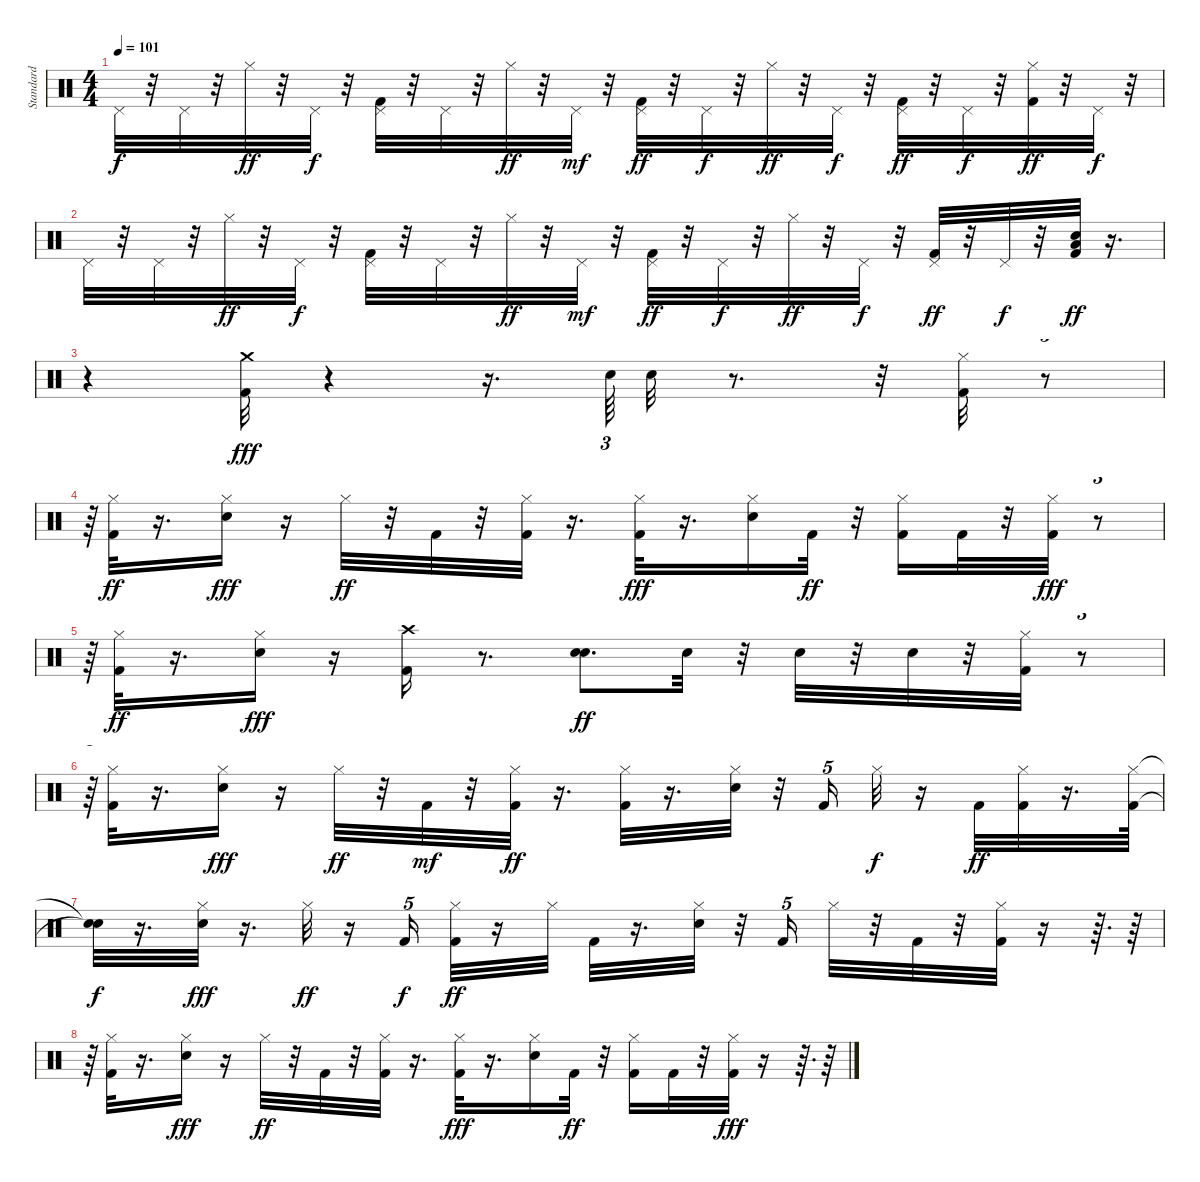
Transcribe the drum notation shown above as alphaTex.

\track (" Standard" " Standard") {instrument percussion}
\staff {score}
\articulation defaults
\ts (4 4)
\tempo 101
\clef neutral
\ks c "Pedal Hi-Hat (hit)".32{dy f}
r.32 "Pedal Hi-Hat (hit)".32 r.32 "Hi-Hat (closed)".32{dy ff} r.32 "Pedal Hi-Hat (hit)".32{dy f} r.32 ("Kick (hit) 2" "Pedal Hi-Hat (hit)").32 r.32 "Pedal Hi-Hat (hit)".32 r.32 "Hi-Hat (closed)".32{dy ff} r.32 "Pedal Hi-Hat (hit)".32{dy mf} r.32 ("Pedal Hi-Hat (hit)" "Kick (hit) 2").32{dy ff} r.32 "Pedal Hi-Hat (hit)".32{dy f} r.32 "Hi-Hat (closed)".32{dy ff} r.32 "Pedal Hi-Hat (hit)".32{dy f} r.32 ("Kick (hit) 2" "Pedal Hi-Hat (hit)").32{dy ff} r.32 "Pedal Hi-Hat (hit)".32{dy f} r.32 ("Kick (hit) 2" "Hi-Hat (closed)").32{dy ff} r.32 "Pedal Hi-Hat (hit)".32{dy f} r.32 |
"Pedal Hi-Hat (hit)".32 r.32 "Pedal Hi-Hat (hit)".32 r.32 "Hi-Hat (closed)".32{dy ff} r.32 "Pedal Hi-Hat (hit)".32{dy f} r.32 ("Kick (hit) 2" "Pedal Hi-Hat (hit)").32 r.32 "Pedal Hi-Hat (hit)".32 r.32 "Hi-Hat (closed)".32{dy ff} r.32 "Pedal Hi-Hat (hit)".32{dy mf} r.32 ("Pedal Hi-Hat (hit)" "Kick (hit) 2").32{dy ff} r.32 "Pedal Hi-Hat (hit)".32{dy f} r.32 "Hi-Hat (closed)".32{dy ff} r.32 "Pedal Hi-Hat (hit)".32{dy f} r.32 ("Kick (hit) 2" "Pedal Hi-Hat (hit)").32{dy ff} r.32 "Pedal Hi-Hat (hit)".32{dy f} r.32 ("Electric Snare (hit)" "Kick (hit) 2" "Low Tom (hit)").32{dy ff} r.16{d} |
r.4 ("Kick (hit) 2" "Crash medium (hit)").32{dy fff} r.4 r.16{d} "Electric Snare (hit)".64{tu (3 2)} "Snare (hit) 2".32 r.8{d} r.32 ("Kick (hit) 2" "Hi-Hat (closed)").32 r.8{tu (3 2)} |
r.64{tu (3 2)} ("Kick (hit) 2" "Hi-Hat (closed)").32{dy ff} r.16{d} ("Hi-Hat (closed)" "Electric Snare (hit)").16{dy fff} r.16 "Hi-Hat (closed)".32{dy ff} r.32 "Kick (hit) 2".32 r.32 ("Hi-Hat (closed)" "Kick (hit) 2").32 r.16{d} ("Hi-Hat (closed)" "Kick (hit) 2").32{dy fff} r.16{d} ("Hi-Hat (closed)" "Electric Snare (hit)").16 "Kick (hit) 2".32{dy ff} r.32 ("Hi-Hat (closed)" "Kick (hit) 2").16 "Kick (hit) 2".32 r.32 ("Hi-Hat (closed)" "Kick (hit) 2").32{dy fff} r.8{tu (3 2)} |
r.64{tu (3 2)} ("Kick (hit) 2" "Hi-Hat (closed)").32{dy ff} r.16{d} ("Hi-Hat (closed)" "Electric Snare (hit)").16{dy fff} r.16 ("Crash high (hit)" "Kick (hit) 2").16 r.8{d} ("Electric Snare (hit)" "Electric Snare (hit)").8{d dy ff} "Electric Snare (hit)".32 r.32 "Electric Snare (hit)".32 r.32 "Electric Snare (hit)".32 r.32 ("Hi-Hat (closed)" "Kick (hit) 2").32 r.8{tu (3 2)} |
r.64{tu (3 2)} ("Hi-Hat (closed)" "Kick (hit) 2").32 r.16{d} ("Hi-Hat (closed)" "Electric Snare (hit)").16{dy fff} r.16 "Hi-Hat (closed)".32{dy ff} r.32 "Kick (hit) 2".32{dy mf} r.32 ("Hi-Hat (closed)" "Kick (hit) 2").32{dy ff} r.16{d} ("Hi-Hat (closed)" "Kick (hit) 2").32 r.16{d} ("Electric Snare (hit)" "Hi-Hat (closed)").32 r.32 "Kick (hit) 2".16{tu (5 4)} "Hi-Hat (closed)".32{dy f} r.16 "Kick (hit) 2".32{dy ff} ("Hi-Hat (closed)" "Kick (hit) 2").32 r.16{d} ("Hi-Hat (closed)" "Kick (hit) 2").64 |
("Snare (hit)"{t} "Snare (hit)"{t}).32{dy f} r.16{d} ("Hi-Hat (closed)" "Electric Snare (hit)").32{dy fff} r.16{d} "Hi-Hat (closed)".32{dy ff} r.16 "Kick (hit) 2".16{tu (5 4) dy f} ("Hi-Hat (closed)" "Kick (hit) 2").32{dy ff} r.16 "Hi-Hat (closed)".32 "Kick (hit) 2".32 r.16{d} ("Electric Snare (hit)" "Hi-Hat (closed)").32 r.32 "Kick (hit) 2".16{tu (5 4)} "Hi-Hat (closed)".32 r.32 "Kick (hit) 2".32 r.32 ("Hi-Hat (closed)" "Kick (hit) 2").32 r.16 r.64{d} r.64 |
r.64 ("Kick (hit) 2" "Hi-Hat (closed)").32 r.16{d} ("Hi-Hat (closed)" "Electric Snare (hit)").16{dy fff} r.16 "Hi-Hat (closed)".32{dy ff} r.32 "Kick (hit) 2".32 r.32 ("Hi-Hat (closed)" "Kick (hit) 2").32 r.16{d} ("Hi-Hat (closed)" "Kick (hit) 2").32{dy fff} r.16{d} ("Hi-Hat (closed)" "Electric Snare (hit)").16 "Kick (hit) 2".32{dy ff} r.32 ("Hi-Hat (closed)" "Kick (hit) 2").16 "Kick (hit) 2".32 r.32 ("Hi-Hat (closed)" "Kick (hit) 2").32{dy fff} r.16 r.64{d} r.64
